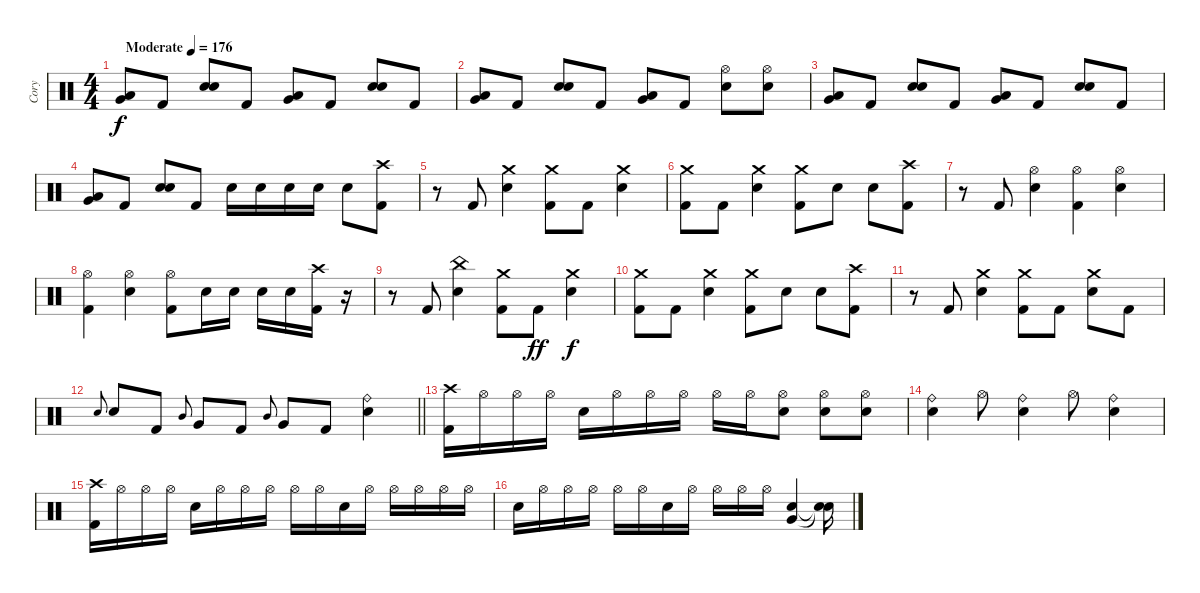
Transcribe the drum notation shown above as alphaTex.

\track ("Cory" "Cory") {instrument percussion}
\staff {score}
\articulation defaults
\ts (4 4)
\tempo (176 "Moderate")
\clef neutral
\ks c
("Low Tom (hit)" "Very Low Tom (hit)").8{dy f} "Kick (hit) 2".8 ("Snare (hit) 2" "Snare (hit) 2").8 "Kick (hit) 2".8 ("Low Tom (hit)" "Very Low Tom (hit)").8 "Kick (hit) 2".8 ("Snare (hit) 2" "Snare (hit) 2").8 "Kick (hit) 2".8 |
("Low Tom (hit)" "Very Low Tom (hit)").8 "Kick (hit) 2".8 ("Snare (hit) 2" "Snare (hit) 2").8 "Kick (hit) 2".8 ("Low Tom (hit)" "Very Low Tom (hit)").8 "Kick (hit) 2".8 ("Hi-Hat (open)" "Snare (hit) 2").8 ("Hi-Hat (open)" "Snare (hit) 2").8 |
("Low Tom (hit)" "Very Low Tom (hit)").8 "Kick (hit) 2".8 ("Snare (hit) 2" "Snare (hit) 2").8 "Kick (hit) 2".8 ("Low Tom (hit)" "Very Low Tom (hit)").8 "Kick (hit) 2".8 ("Snare (hit) 2" "Snare (hit) 2").8 "Kick (hit) 2".8 |
("Low Tom (hit)" "Very Low Tom (hit)").8 "Kick (hit) 2".8 ("Snare (hit) 2" "Snare (hit) 2").8 "Kick (hit) 2".8 "Snare (hit) 2".16 "Snare (hit) 2".16 "Snare (hit) 2".16 "Snare (hit) 2".16 "Snare (hit) 2".8 ("Crash high (hit)" "Kick (hit) 2").8 |
r.8 "Kick (hit) 2".8 ("Crash medium (hit)" "Snare (hit) 2").4 ("Crash medium (hit)" "Kick (hit) 2").8 "Kick (hit) 2".8 ("Crash medium (hit)" "Snare (hit) 2").4 |
("Crash medium (hit)" "Kick (hit) 2").8 "Kick (hit) 2".8 ("Crash medium (hit)" "Snare (hit) 2").4 ("Crash medium (hit)" "Kick (hit) 2").8 "Snare (hit) 2".8 "Snare (hit) 2".8 ("Crash high (hit)" "Kick (hit) 2").8 |
r.8 "Kick (hit) 2".8 ("Hi-Hat (open)" "Snare (hit) 2").4 ("Hi-Hat (open)" "Kick (hit) 2").4 ("Hi-Hat (open)" "Snare (hit) 2").4 |
("Hi-Hat (open)" "Kick (hit) 2").4 ("Hi-Hat (open)" "Snare (hit) 2").4 ("Hi-Hat (open)" "Kick (hit) 2").8 "Snare (hit) 2".16 "Snare (hit) 2".16 "Snare (hit) 2".16 "Snare (hit) 2".16 ("Crash high (hit)" "Kick (hit) 2").16 r.16 |
r.8 "Kick (hit) 2".8 ("China (hit)" "Snare (hit) 2").4 ("Crash medium (hit)" "Kick (hit) 2").8 "Kick (hit) 2".8{dy ff} ("Crash medium (hit)" "Snare (hit) 2").4{dy f} |
("Crash medium (hit)" "Kick (hit) 2").8 "Kick (hit) 2".8 ("Crash medium (hit)" "Snare (hit) 2").4 ("Crash medium (hit)" "Kick (hit) 2").8 "Snare (hit) 2".8 "Snare (hit) 2".8 ("Crash high (hit)" "Kick (hit) 2").8 |
r.8 "Kick (hit) 2".8 ("Crash medium (hit)" "Snare (hit) 2").4 ("Crash medium (hit)" "Kick (hit) 2").8 "Kick (hit) 2".8 ("Crash medium (hit)" "Snare (hit) 2").8 "Kick (hit) 2".8 |
\barLineRight lightlight "Snare (hit) 2".8{gr onbeat} "Snare (hit) 2".8 "Kick (hit) 2".8 "Mid Tom (hit)".8{gr onbeat} "Very Low Tom (hit)".8 "Kick (hit) 2".8 "Mid Tom (hit)".8{gr onbeat} "Very Low Tom (hit)".8 "Kick (hit) 2".8
("Ride (bell)" "Snare (hit) 2").4 |
("Crash high (hit)" "Kick (hit) 2").16 "Hi-Hat (open)".16 "Hi-Hat (open)".16 "Hi-Hat (open)".16 "Snare (hit) 2".16 "Hi-Hat (open)".16 "Hi-Hat (open)".16 "Hi-Hat (open)".16 "Hi-Hat (open)".16 "Hi-Hat (open)".16 ("Hi-Hat (open)" "Snare (hit) 2").8 ("Hi-Hat (open)" "Snare (hit) 2").8 ("Hi-Hat (open)" "Snare (hit) 2").8 |
("Ride (bell)" "Snare (hit) 2").4 "Hi-Hat (open)".8 ("Ride (bell)" "Snare (hit) 2").4 "Hi-Hat (open)".8 ("Ride (bell)" "Snare (hit) 2").4 |
("Crash high (hit)" "Kick (hit) 2").16 "Hi-Hat (open)".16 "Hi-Hat (open)".16 "Hi-Hat (open)".16 "Snare (hit) 2".16 "Hi-Hat (open)".16 "Hi-Hat (open)".16 "Hi-Hat (open)".16 "Hi-Hat (open)".16 "Hi-Hat (open)".16 "Snare (hit) 2".16 "Hi-Hat (open)".16 "Hi-Hat (open)".16 "Hi-Hat (open)".16 "Hi-Hat (open)".16 "Hi-Hat (open)".16 |
"Snare (hit) 2".16 "Hi-Hat (open)".16 "Hi-Hat (open)".16 "Hi-Hat (open)".16 "Hi-Hat (open)".16 "Hi-Hat (open)".16 "Snare (hit) 2".16 "Hi-Hat (open)".16 "Hi-Hat (open)".16 "Hi-Hat (open)".16 "Hi-Hat (open)".16 ("Very Low Tom (hit)" "Snare (hit) 2").4 ("Snare (hit)"{t} "Snare (hit)"{t}).16
